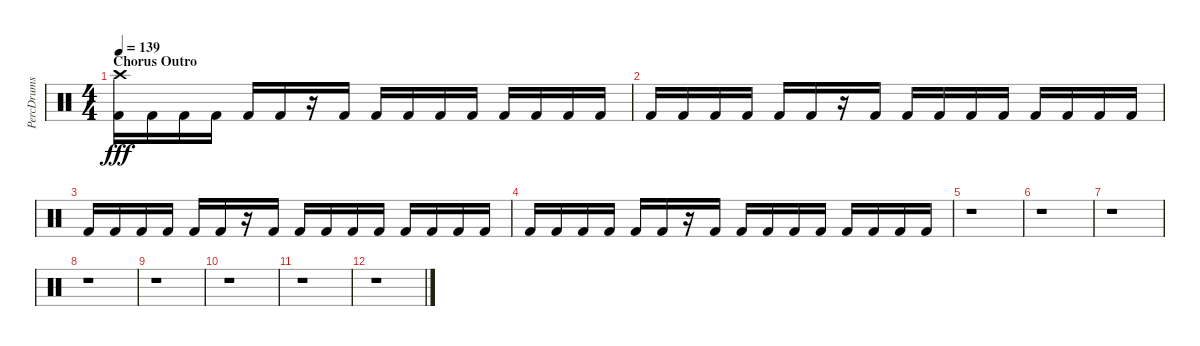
\track ("PercDrums" "PercDrums") {instrument percussion}
\staff {score}
\articulation defaults
\ts (4 4)
\section ("" "Chorus Outro")
\tempo 139
\clef neutral
\ks c
("Kick (hit) 2" "Crash high (hit)").16{dy fff} "Kick (hit) 2".16 "Kick (hit) 2".16 "Kick (hit) 2".16 "Kick (hit) 2".16 "Kick (hit) 2".16 r.16 "Kick (hit) 2".16 "Kick (hit) 2".16 "Kick (hit) 2".16 "Kick (hit) 2".16 "Kick (hit) 2".16 "Kick (hit) 2".16 "Kick (hit) 2".16 "Kick (hit) 2".16 "Kick (hit) 2".16 |
"Kick (hit) 2".16 "Kick (hit) 2".16 "Kick (hit) 2".16 "Kick (hit) 2".16 "Kick (hit) 2".16 "Kick (hit) 2".16 r.16 "Kick (hit) 2".16 "Kick (hit) 2".16 "Kick (hit) 2".16 "Kick (hit) 2".16 "Kick (hit) 2".16 "Kick (hit) 2".16 "Kick (hit) 2".16 "Kick (hit) 2".16 "Kick (hit) 2".16 |
"Kick (hit) 2".16 "Kick (hit) 2".16 "Kick (hit) 2".16 "Kick (hit) 2".16 "Kick (hit) 2".16 "Kick (hit) 2".16 r.16 "Kick (hit) 2".16 "Kick (hit) 2".16 "Kick (hit) 2".16 "Kick (hit) 2".16 "Kick (hit) 2".16 "Kick (hit) 2".16 "Kick (hit) 2".16 "Kick (hit) 2".16 "Kick (hit) 2".16 |
"Kick (hit) 2".16 "Kick (hit) 2".16 "Kick (hit) 2".16 "Kick (hit) 2".16 "Kick (hit) 2".16 "Kick (hit) 2".16 r.16 "Kick (hit) 2".16 "Kick (hit) 2".16 "Kick (hit) 2".16 "Kick (hit) 2".16 "Kick (hit) 2".16 "Kick (hit) 2".16 "Kick (hit) 2".16 "Kick (hit) 2".16 "Kick (hit) 2".16 |
r.1 |
r.1 |
r.1 |
r.1 |
r.1 |
r.1 |
r.1 |
r.1
